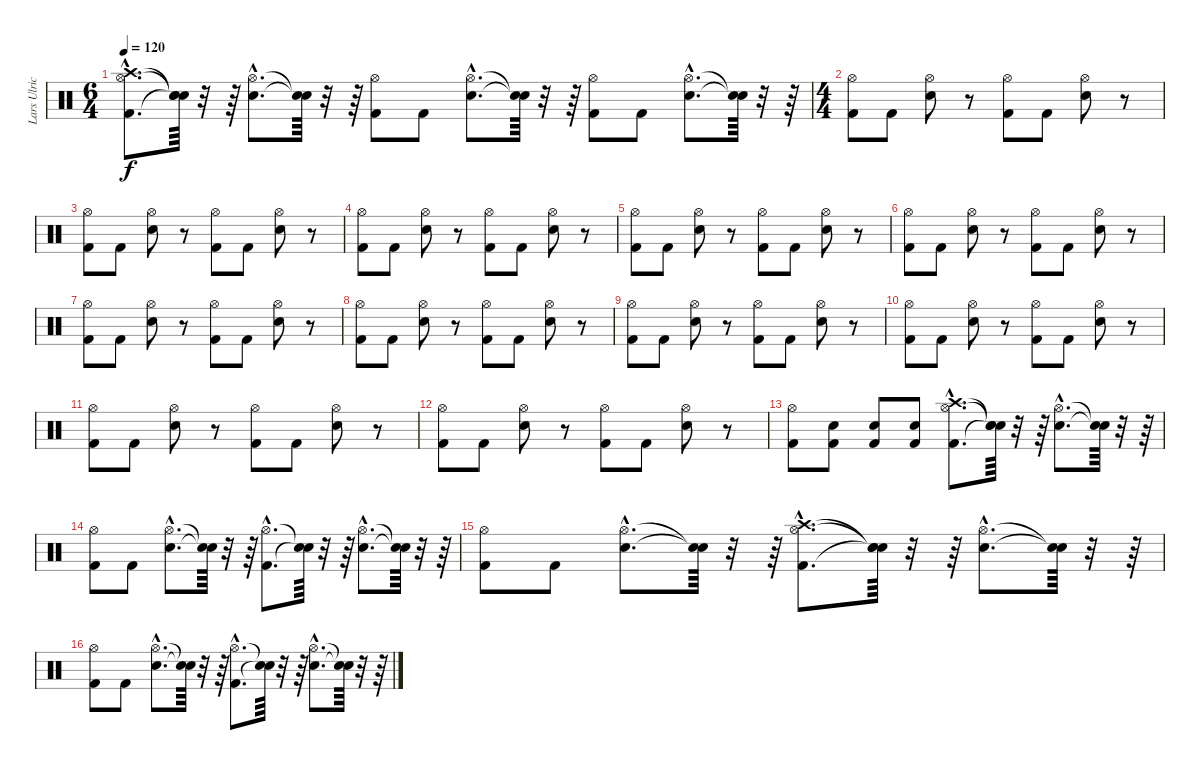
\track ("Lars Ulrich" "Lars Ulric") {instrument percussion}
\staff {score}
\articulation defaults
\ts (6 4)
\tempo 120
\clef neutral
\ks c
("Kick (hit) 2"{hac} "Hi-Hat (open)"{hac} "Crash high (hit)"{hac}).8{d dy f} ("Snare (hit)"{t} "Snare (hit)"{t} "Snare (hit)"{t}).64 r.32 r.64 ("Snare (hit) 2"{hac} "Hi-Hat (open)"{hac}).8{d} ("Snare (hit)"{t} "Snare (hit)"{t}).64 r.32 r.64 ("Kick (hit) 2" "Hi-Hat (open)").8 "Kick (hit) 2".8 ("Snare (hit) 2"{hac} "Hi-Hat (open)"{hac}).8{d} ("Snare (hit)"{t} "Snare (hit)"{t}).64 r.32 r.64 ("Kick (hit) 2" "Hi-Hat (open)").8 "Kick (hit) 2".8 ("Snare (hit) 2"{hac} "Hi-Hat (open)"{hac}).8{d} ("Snare (hit)"{t} "Snare (hit)"{t}).64 r.32 r.64 |
\ts (4 4)
("Kick (hit) 2" "Hi-Hat (open)").8 "Kick (hit) 2".8 ("Snare (hit) 2" "Hi-Hat (open)").8 r.8 ("Kick (hit) 2" "Hi-Hat (open)").8 "Kick (hit) 2".8 ("Snare (hit) 2" "Hi-Hat (open)").8 r.8 |
("Kick (hit) 2" "Hi-Hat (open)").8 "Kick (hit) 2".8 ("Snare (hit) 2" "Hi-Hat (open)").8 r.8 ("Kick (hit) 2" "Hi-Hat (open)").8 "Kick (hit) 2".8 ("Snare (hit) 2" "Hi-Hat (open)").8 r.8 |
("Kick (hit) 2" "Hi-Hat (open)").8 "Kick (hit) 2".8 ("Snare (hit) 2" "Hi-Hat (open)").8 r.8 ("Kick (hit) 2" "Hi-Hat (open)").8 "Kick (hit) 2".8 ("Snare (hit) 2" "Hi-Hat (open)").8 r.8 |
("Kick (hit) 2" "Hi-Hat (open)").8 "Kick (hit) 2".8 ("Snare (hit) 2" "Hi-Hat (open)").8 r.8 ("Kick (hit) 2" "Hi-Hat (open)").8 "Kick (hit) 2".8 ("Snare (hit) 2" "Hi-Hat (open)").8 r.8 |
("Kick (hit) 2" "Hi-Hat (open)").8 "Kick (hit) 2".8 ("Snare (hit) 2" "Hi-Hat (open)").8 r.8 ("Kick (hit) 2" "Hi-Hat (open)").8 "Kick (hit) 2".8 ("Snare (hit) 2" "Hi-Hat (open)").8 r.8 |
("Kick (hit) 2" "Hi-Hat (open)").8 "Kick (hit) 2".8 ("Snare (hit) 2" "Hi-Hat (open)").8 r.8 ("Kick (hit) 2" "Hi-Hat (open)").8 "Kick (hit) 2".8 ("Snare (hit) 2" "Hi-Hat (open)").8 r.8 |
("Kick (hit) 2" "Hi-Hat (open)").8 "Kick (hit) 2".8 ("Snare (hit) 2" "Hi-Hat (open)").8 r.8 ("Kick (hit) 2" "Hi-Hat (open)").8 "Kick (hit) 2".8 ("Snare (hit) 2" "Hi-Hat (open)").8 r.8 |
("Kick (hit) 2" "Hi-Hat (open)").8 "Kick (hit) 2".8 ("Snare (hit) 2" "Hi-Hat (open)").8 r.8 ("Kick (hit) 2" "Hi-Hat (open)").8 "Kick (hit) 2".8 ("Snare (hit) 2" "Hi-Hat (open)").8 r.8 |
("Kick (hit) 2" "Hi-Hat (open)").8 "Kick (hit) 2".8 ("Snare (hit) 2" "Hi-Hat (open)").8 r.8 ("Kick (hit) 2" "Hi-Hat (open)").8 "Kick (hit) 2".8 ("Snare (hit) 2" "Hi-Hat (open)").8 r.8 |
("Kick (hit) 2" "Hi-Hat (open)").8 "Kick (hit) 2".8 ("Snare (hit) 2" "Hi-Hat (open)").8 r.8 ("Kick (hit) 2" "Hi-Hat (open)").8 "Kick (hit) 2".8 ("Snare (hit) 2" "Hi-Hat (open)").8 r.8 |
("Kick (hit) 2" "Hi-Hat (open)").8 "Kick (hit) 2".8 ("Snare (hit) 2" "Hi-Hat (open)").8 r.8 ("Kick (hit) 2" "Hi-Hat (open)").8 "Kick (hit) 2".8 ("Snare (hit) 2" "Hi-Hat (open)").8 r.8 |
("Kick (hit) 2" "Hi-Hat (open)").8 ("Kick (hit) 2" "Snare (hit) 2").8 ("Kick (hit) 2" "Snare (hit) 2").8 ("Kick (hit) 2" "Snare (hit) 2").8 ("Kick (hit) 2"{hac} "Hi-Hat (open)"{hac} "Crash high (hit)"{hac}).8{d} ("Snare (hit)"{t} "Snare (hit)"{t} "Snare (hit)"{t}).64 r.32 r.64 ("Snare (hit) 2"{hac} "Hi-Hat (open)"{hac}).8{d} ("Snare (hit)"{t} "Snare (hit)"{t}).64 r.32 r.64 |
("Kick (hit) 2" "Hi-Hat (open)").8 "Kick (hit) 2".8 ("Snare (hit) 2"{hac} "Hi-Hat (open)"{hac}).8{d} ("Snare (hit)"{t} "Snare (hit)"{t}).64 r.32 r.64 ("Kick (hit) 2"{hac} "Hi-Hat (open)"{hac}).8{d} ("Snare (hit)"{t} "Snare (hit)"{t}).64 r.32 r.64 ("Snare (hit) 2"{hac} "Hi-Hat (open)"{hac}).8{d} ("Snare (hit)"{t} "Snare (hit)"{t}).64 r.32 r.64 |
("Kick (hit) 2" "Hi-Hat (open)").8 "Kick (hit) 2".8 ("Snare (hit) 2"{hac} "Hi-Hat (open)"{hac}).8{d} ("Snare (hit)"{t} "Snare (hit)"{t}).64 r.32 r.64 ("Kick (hit) 2"{hac} "Hi-Hat (open)"{hac} "Crash high (hit)"{hac}).8{d} ("Snare (hit)"{t} "Snare (hit)"{t} "Snare (hit)"{t}).64 r.32 r.64 ("Snare (hit) 2"{hac} "Hi-Hat (open)"{hac}).8{d} ("Snare (hit)"{t} "Snare (hit)"{t}).64 r.32 r.64 |
("Kick (hit) 2" "Hi-Hat (open)").8 "Kick (hit) 2".8 ("Snare (hit) 2"{hac} "Hi-Hat (open)"{hac}).8{d} ("Snare (hit)"{t} "Snare (hit)"{t}).64 r.32 r.64 ("Kick (hit) 2"{hac} "Hi-Hat (open)"{hac}).8{d} ("Snare (hit)"{t} "Snare (hit)"{t}).64 r.32 r.64 ("Snare (hit) 2"{hac} "Hi-Hat (open)"{hac}).8{d} ("Snare (hit)"{t} "Snare (hit)"{t}).64 r.32 r.64
